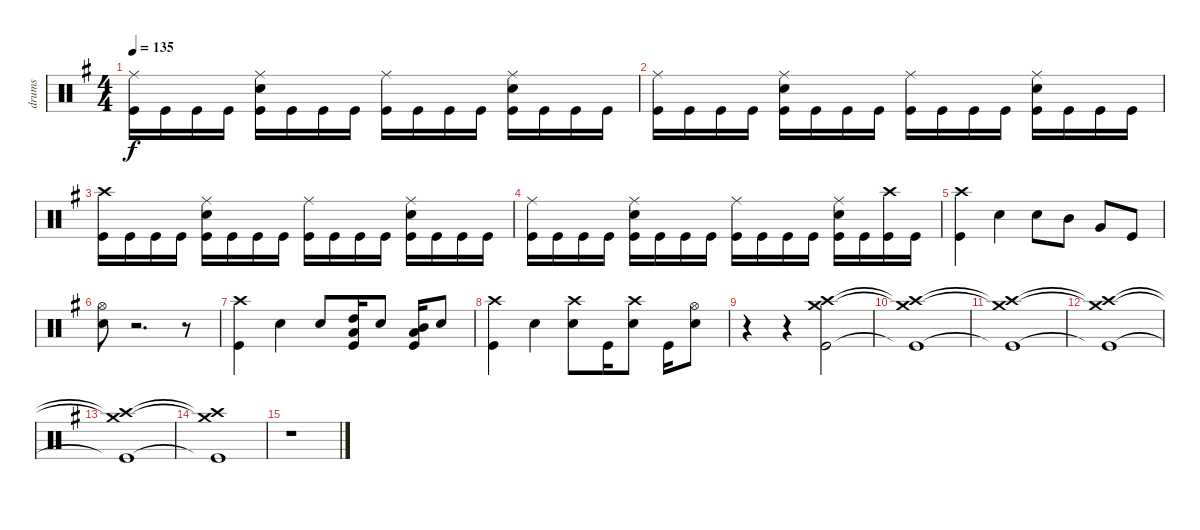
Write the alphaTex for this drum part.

\track ("drums" "drums") {instrument percussion}
\staff {score}
\articulation defaults
\ts (4 4)
\tempo 135
\clef neutral
\ks eminor
("Ride (middle)" "Kick (hit)").16{dy f} "Kick (hit)".16 "Kick (hit)".16 "Kick (hit)".16 ("Ride (middle)" "Snare (hit) 2" "Kick (hit)").16 "Kick (hit)".16 "Kick (hit)".16 "Kick (hit)".16 ("Ride (middle)" "Kick (hit)").16 "Kick (hit)".16 "Kick (hit)".16 "Kick (hit)".16 ("Ride (middle)" "Snare (hit) 2" "Kick (hit)").16 "Kick (hit)".16 "Kick (hit)".16 "Kick (hit)".16 |
("Ride (middle)" "Kick (hit)").16 "Kick (hit)".16 "Kick (hit)".16 "Kick (hit)".16 ("Ride (middle)" "Snare (hit) 2" "Kick (hit)").16 "Kick (hit)".16 "Kick (hit)".16 "Kick (hit)".16 ("Ride (middle)" "Kick (hit)").16 "Kick (hit)".16 "Kick (hit)".16 "Kick (hit)".16 ("Ride (middle)" "Snare (hit) 2" "Kick (hit)").16 "Kick (hit)".16 "Kick (hit)".16 "Kick (hit)".16 |
("Crash high (hit)" "Kick (hit)").16 "Kick (hit)".16 "Kick (hit)".16 "Kick (hit)".16 ("Ride (middle)" "Snare (hit) 2" "Kick (hit)").16 "Kick (hit)".16 "Kick (hit)".16 "Kick (hit)".16 ("Ride (middle)" "Kick (hit)").16 "Kick (hit)".16 "Kick (hit)".16 "Kick (hit)".16 ("Ride (middle)" "Snare (hit) 2" "Kick (hit)").16 "Kick (hit)".16 "Kick (hit)".16 "Kick (hit)".16 |
("Ride (middle)" "Kick (hit)").16 "Kick (hit)".16 "Kick (hit)".16 "Kick (hit)".16 ("Ride (middle)" "Snare (hit) 2" "Kick (hit)").16 "Kick (hit)".16 "Kick (hit)".16 "Kick (hit)".16 ("Ride (middle)" "Kick (hit)").16 "Kick (hit)".16 "Kick (hit)".16 "Kick (hit)".16 ("Ride (middle)" "Snare (hit) 2" "Kick (hit)").16 "Kick (hit)".16 ("Crash high (hit)" "Kick (hit)").16 "Kick (hit)".16 |
("Crash high (hit)" "Kick (hit)").4 "Snare (hit) 2".4 "Snare (hit) 2".8 "Mid Tom (hit)".8 "Very Low Tom (hit)".8 "Kick (hit)".8 |
("Hi-Hat (open)" "Snare (hit) 2").8 r.2{d} r.8 |
("Crash high (hit)" "Kick (hit)").4 "Snare (hit) 2".4 "Snare (hit) 2".8 ("High Tom (hit)" "Low Floor Tom (hit)" "Kick (hit)").16 "Snare (hit) 2".8 ("Mid Tom (hit)" "Low Floor Tom (hit)" "Kick (hit)").16 "Snare (hit) 2".8 |
("Crash high (hit)" "Kick (hit)").4 "Snare (hit) 2".4 ("Crash high (hit)" "Snare (hit) 2").8 "Kick (hit)".16 ("Crash high (hit)" "Snare (hit) 2").8 "Kick (hit)".16 ("Hi-Hat (open)" "Snare (hit) 2").8 |
r.4 r.4 ("Crash high (hit)" "Crash medium (hit)" "Kick (hit)").2 |
("Crash high (hit)"{t} "Crash medium (hit)"{t} "Kick (hit)"{t}).1 |
("Crash high (hit)"{t} "Crash medium (hit)"{t} "Kick (hit)"{t}).1 |
("Crash high (hit)"{t} "Crash medium (hit)"{t} "Kick (hit)"{t}).1 |
("Crash high (hit)"{t} "Crash medium (hit)"{t} "Kick (hit)"{t}).1 |
("Crash high (hit)"{t} "Crash medium (hit)"{t} "Kick (hit)"{t}).1 |
r.1
